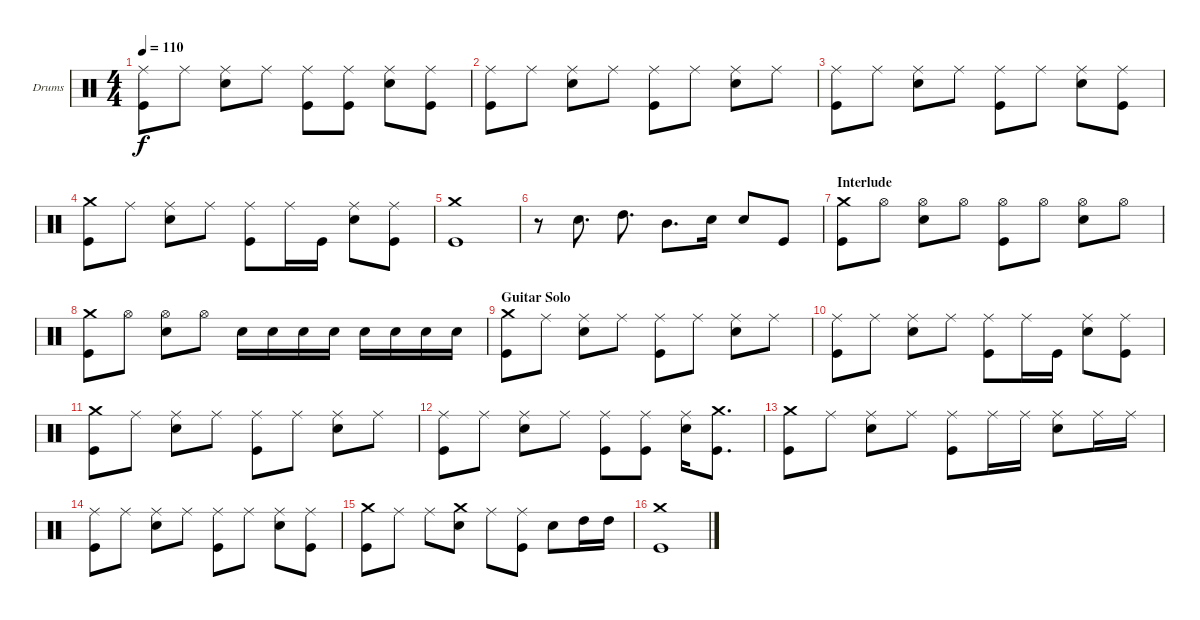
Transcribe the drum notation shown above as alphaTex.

\bracketExtendMode groupsimilarinstruments
\firstSystemTrackNameOrientation horizontal
\otherSystemsTrackNameOrientation horizontal
\track ("Drums" "Drums") {instrument percussion}
\staff {score}
\articulation defaults
\ts (4 4)
\tempo 110
\clef neutral
\ks c
("Ride (middle)" "Kick (hit)").8{dy f} "Ride (middle)".8 ("Ride (middle)" "Snare (hit) 2").8 "Ride (middle)".8 ("Ride (middle)" "Kick (hit)").8 ("Ride (middle)" "Kick (hit)").8 ("Ride (middle)" "Snare (hit) 2").8 ("Ride (middle)" "Kick (hit)").8 |
("Ride (middle)" "Kick (hit)").8 "Ride (middle)".8 ("Ride (middle)" "Snare (hit) 2").8 "Ride (middle)".8 ("Ride (middle)" "Kick (hit)").8 "Ride (middle)".8 ("Ride (middle)" "Snare (hit) 2").8 "Ride (middle)".8 |
("Ride (middle)" "Kick (hit)").8 "Ride (middle)".8 ("Ride (middle)" "Snare (hit) 2").8 "Ride (middle)".8 ("Ride (middle)" "Kick (hit)").8 "Ride (middle)".8 ("Ride (middle)" "Snare (hit) 2").8 ("Ride (middle)" "Kick (hit)").8 |
("Crash medium (hit)" "Kick (hit)").8 "Ride (middle)".8 ("Ride (middle)" "Snare (hit) 2").8 "Ride (middle)".8 ("Ride (middle)" "Kick (hit)").8 "Ride (middle)".16 "Kick (hit)".16 ("Ride (middle)" "Snare (hit) 2").8 ("Ride (middle)" "Kick (hit)").8 |
("Crash medium (hit)" "Kick (hit)").1 |
r.8 "Snare (hit) 2".8{d} "High Tom (hit)".8{d} "Mid Tom (hit)".8{d} "Snare (hit) 2".16 "Snare (hit) 2".8 "Kick (hit)".8 |
\section ("" "Interlude")
("Crash medium (hit)" "Kick (hit)").8 "Hi-Hat (open)".8 ("Hi-Hat (open)" "Snare (hit) 2").8 "Hi-Hat (open)".8 ("Hi-Hat (open)" "Kick (hit)").8 "Hi-Hat (open)".8 ("Hi-Hat (open)" "Snare (hit) 2").8 "Hi-Hat (open)".8 |
("Crash medium (hit)" "Kick (hit)").8 "Hi-Hat (open)".8 ("Hi-Hat (open)" "Snare (hit) 2").8 "Hi-Hat (open)".8 "Snare (hit) 2".16 "Snare (hit) 2".16 "Snare (hit) 2".16 "Snare (hit) 2".16 "Snare (hit) 2".16 "Snare (hit) 2".16 "Snare (hit) 2".16 "Snare (hit) 2".16 |
\section ("" "Guitar Solo")
("Crash medium (hit)" "Kick (hit)").8 "Ride (middle)".8 ("Ride (middle)" "Snare (hit) 2").8 "Ride (middle)".8 ("Ride (middle)" "Kick (hit)").8 "Ride (middle)".8 ("Ride (middle)" "Snare (hit) 2").8 "Ride (middle)".8 |
("Ride (middle)" "Kick (hit)").8 "Ride (middle)".8 ("Ride (middle)" "Snare (hit) 2").8 "Ride (middle)".8 ("Ride (middle)" "Kick (hit)").8 "Ride (middle)".16 "Kick (hit)".16 ("Ride (middle)" "Snare (hit) 2").8 ("Ride (middle)" "Kick (hit)").8 |
("Crash medium (hit)" "Kick (hit)").8 "Ride (middle)".8 ("Ride (middle)" "Snare (hit) 2").8 "Ride (middle)".8 ("Ride (middle)" "Kick (hit)").8 "Ride (middle)".8 ("Ride (middle)" "Snare (hit) 2").8 "Ride (middle)".8 |
("Ride (middle)" "Kick (hit)").8 "Ride (middle)".8 ("Ride (middle)" "Snare (hit) 2").8 "Ride (middle)".8 ("Ride (middle)" "Kick (hit)").8 ("Ride (middle)" "Kick (hit)").8 ("Ride (middle)" "Snare (hit) 2").16 ("Crash medium (hit)" "Kick (hit)").8{d} |
("Crash medium (hit)" "Kick (hit)").8 "Ride (middle)".8 ("Ride (middle)" "Snare (hit) 2").8 "Ride (middle)".8 ("Ride (middle)" "Kick (hit)").8 "Ride (middle)".16 "Ride (middle)".16 ("Ride (middle)" "Snare (hit) 2").8 "Ride (middle)".16 "Ride (middle)".16 |
("Ride (middle)" "Kick (hit)").8 "Ride (middle)".8 ("Ride (middle)" "Snare (hit) 2").8 "Ride (middle)".8 ("Ride (middle)" "Kick (hit)").8 "Ride (middle)".8 ("Ride (middle)" "Snare (hit) 2").8 ("Ride (middle)" "Kick (hit)").8 |
("Crash medium (hit)" "Kick (hit)").8 "Ride (middle)".8 "Ride (middle)".8 ("Crash medium (hit)" "Snare (hit) 2").8 "Ride (middle)".8 ("Ride (middle)" "Kick (hit)").8 "Snare (hit) 2".8 "High Tom (hit)".16 "High Tom (hit)".16 |
("Crash medium (hit)" "Kick (hit)").1
